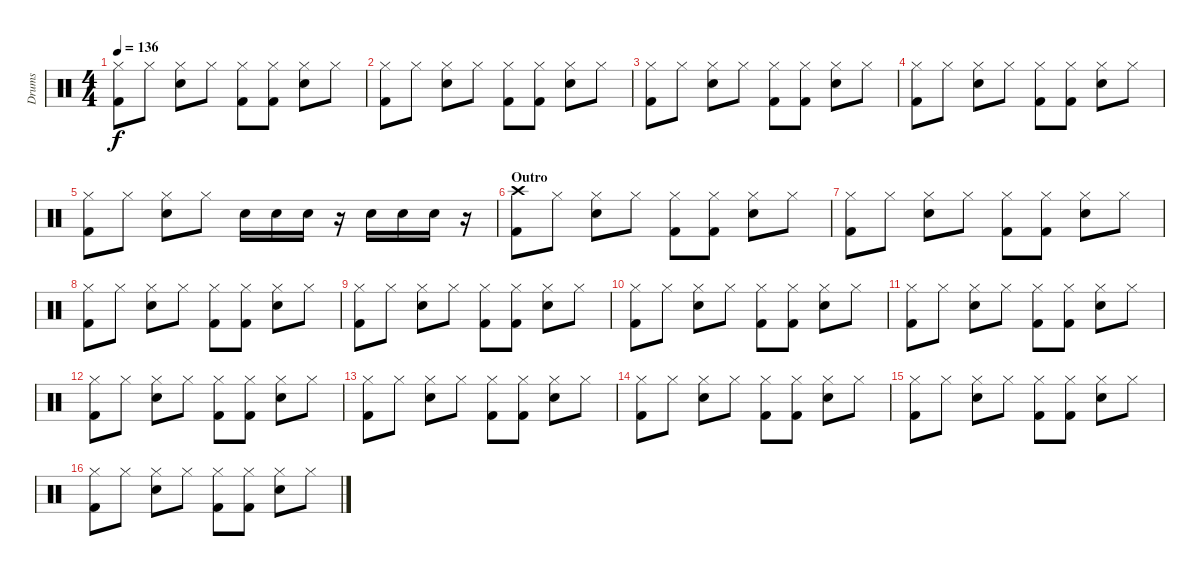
\track ("Drums" "Drums") {instrument percussion}
\staff {score}
\articulation defaults
\ts (4 4)
\tempo 136
\clef neutral
\ks c
("Hi-Hat (closed)" "Kick (hit) 2").8{dy f} "Hi-Hat (closed)".8 ("Hi-Hat (closed)" "Snare (hit) 2").8 "Hi-Hat (closed)".8 ("Hi-Hat (closed)" "Kick (hit) 2").8 ("Hi-Hat (closed)" "Kick (hit) 2").8 ("Hi-Hat (closed)" "Snare (hit) 2").8 "Hi-Hat (closed)".8 |
("Hi-Hat (closed)" "Kick (hit) 2").8 "Hi-Hat (closed)".8 ("Hi-Hat (closed)" "Snare (hit) 2").8 "Hi-Hat (closed)".8 ("Hi-Hat (closed)" "Kick (hit) 2").8 ("Hi-Hat (closed)" "Kick (hit) 2").8 ("Hi-Hat (closed)" "Snare (hit) 2").8 "Hi-Hat (closed)".8 |
("Hi-Hat (closed)" "Kick (hit) 2").8 "Hi-Hat (closed)".8 ("Hi-Hat (closed)" "Snare (hit) 2").8 "Hi-Hat (closed)".8 ("Hi-Hat (closed)" "Kick (hit) 2").8 ("Hi-Hat (closed)" "Kick (hit) 2").8 ("Hi-Hat (closed)" "Snare (hit) 2").8 "Hi-Hat (closed)".8 |
("Hi-Hat (closed)" "Kick (hit) 2").8 "Hi-Hat (closed)".8 ("Hi-Hat (closed)" "Snare (hit) 2").8 "Hi-Hat (closed)".8 ("Hi-Hat (closed)" "Kick (hit) 2").8 ("Hi-Hat (closed)" "Kick (hit) 2").8 ("Hi-Hat (closed)" "Snare (hit) 2").8 "Hi-Hat (closed)".8 |
("Hi-Hat (closed)" "Kick (hit) 2").8 "Hi-Hat (closed)".8 ("Hi-Hat (closed)" "Snare (hit) 2").8 "Hi-Hat (closed)".8 "Snare (hit) 2".16 "Snare (hit) 2".16 "Snare (hit) 2".16 r.16 "Snare (hit) 2".16 "Snare (hit) 2".16 "Snare (hit) 2".16 r.16 |
\section ("" "Outro")
("Crash high (hit)" "Kick (hit) 2").8 "Hi-Hat (closed)".8 ("Hi-Hat (closed)" "Snare (hit) 2").8 "Hi-Hat (closed)".8 ("Hi-Hat (closed)" "Kick (hit) 2").8 ("Hi-Hat (closed)" "Kick (hit) 2").8 ("Hi-Hat (closed)" "Snare (hit) 2").8 "Hi-Hat (closed)".8 |
("Hi-Hat (closed)" "Kick (hit) 2").8 "Hi-Hat (closed)".8 ("Hi-Hat (closed)" "Snare (hit) 2").8 "Hi-Hat (closed)".8 ("Hi-Hat (closed)" "Kick (hit) 2").8 ("Hi-Hat (closed)" "Kick (hit) 2").8 ("Hi-Hat (closed)" "Snare (hit) 2").8 "Hi-Hat (closed)".8 |
("Hi-Hat (closed)" "Kick (hit) 2").8 "Hi-Hat (closed)".8 ("Hi-Hat (closed)" "Snare (hit) 2").8 "Hi-Hat (closed)".8 ("Hi-Hat (closed)" "Kick (hit) 2").8 ("Hi-Hat (closed)" "Kick (hit) 2").8 ("Hi-Hat (closed)" "Snare (hit) 2").8 "Hi-Hat (closed)".8 |
("Hi-Hat (closed)" "Kick (hit) 2").8 "Hi-Hat (closed)".8 ("Hi-Hat (closed)" "Snare (hit) 2").8 "Hi-Hat (closed)".8 ("Hi-Hat (closed)" "Kick (hit) 2").8 ("Hi-Hat (closed)" "Kick (hit) 2").8 ("Hi-Hat (closed)" "Snare (hit) 2").8 "Hi-Hat (closed)".8 |
("Hi-Hat (closed)" "Kick (hit) 2").8 "Hi-Hat (closed)".8 ("Hi-Hat (closed)" "Snare (hit) 2").8 "Hi-Hat (closed)".8 ("Hi-Hat (closed)" "Kick (hit) 2").8 ("Hi-Hat (closed)" "Kick (hit) 2").8 ("Hi-Hat (closed)" "Snare (hit) 2").8 "Hi-Hat (closed)".8 |
("Hi-Hat (closed)" "Kick (hit) 2").8 "Hi-Hat (closed)".8 ("Hi-Hat (closed)" "Snare (hit) 2").8 "Hi-Hat (closed)".8 ("Hi-Hat (closed)" "Kick (hit) 2").8 ("Hi-Hat (closed)" "Kick (hit) 2").8 ("Hi-Hat (closed)" "Snare (hit) 2").8 "Hi-Hat (closed)".8 |
("Hi-Hat (closed)" "Kick (hit) 2").8 "Hi-Hat (closed)".8 ("Hi-Hat (closed)" "Snare (hit) 2").8 "Hi-Hat (closed)".8 ("Hi-Hat (closed)" "Kick (hit) 2").8 ("Hi-Hat (closed)" "Kick (hit) 2").8 ("Hi-Hat (closed)" "Snare (hit) 2").8 "Hi-Hat (closed)".8 |
("Hi-Hat (closed)" "Kick (hit) 2").8 "Hi-Hat (closed)".8 ("Hi-Hat (closed)" "Snare (hit) 2").8 "Hi-Hat (closed)".8 ("Hi-Hat (closed)" "Kick (hit) 2").8 ("Hi-Hat (closed)" "Kick (hit) 2").8 ("Hi-Hat (closed)" "Snare (hit) 2").8 "Hi-Hat (closed)".8 |
("Hi-Hat (closed)" "Kick (hit) 2").8 "Hi-Hat (closed)".8 ("Hi-Hat (closed)" "Snare (hit) 2").8 "Hi-Hat (closed)".8 ("Hi-Hat (closed)" "Kick (hit) 2").8 ("Hi-Hat (closed)" "Kick (hit) 2").8 ("Hi-Hat (closed)" "Snare (hit) 2").8 "Hi-Hat (closed)".8 |
("Hi-Hat (closed)" "Kick (hit) 2").8 "Hi-Hat (closed)".8 ("Hi-Hat (closed)" "Snare (hit) 2").8 "Hi-Hat (closed)".8 ("Hi-Hat (closed)" "Kick (hit) 2").8 ("Hi-Hat (closed)" "Kick (hit) 2").8 ("Hi-Hat (closed)" "Snare (hit) 2").8 "Hi-Hat (closed)".8 |
("Hi-Hat (closed)" "Kick (hit) 2").8 "Hi-Hat (closed)".8 ("Hi-Hat (closed)" "Snare (hit) 2").8 "Hi-Hat (closed)".8 ("Hi-Hat (closed)" "Kick (hit) 2").8 ("Hi-Hat (closed)" "Kick (hit) 2").8 ("Hi-Hat (closed)" "Snare (hit) 2").8 "Hi-Hat (closed)".8
